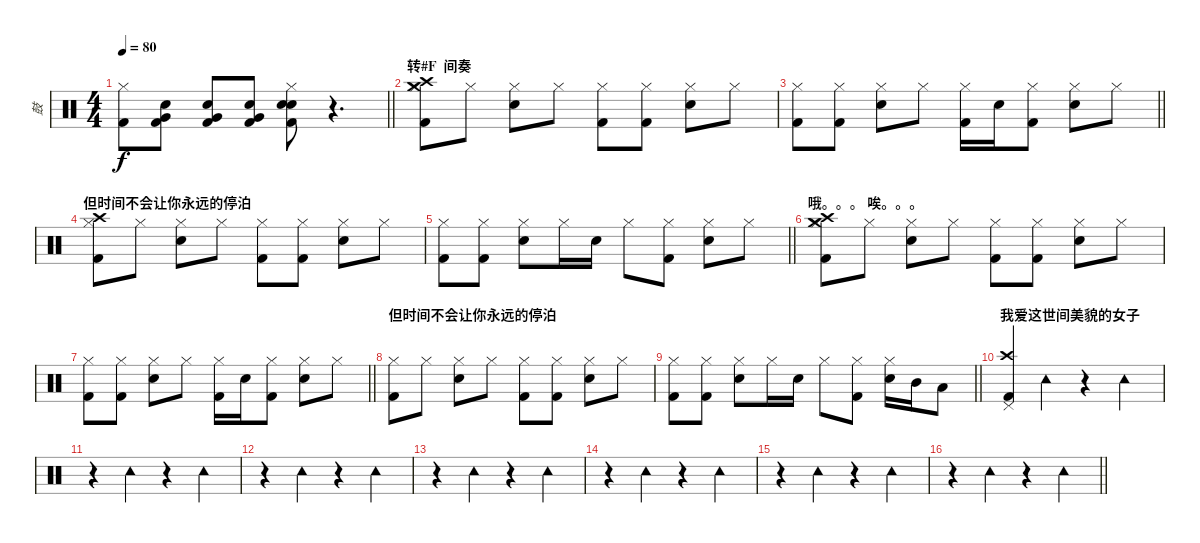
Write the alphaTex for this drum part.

\track ("鼓" "鼓") {instrument percussion}
\staff {score}
\articulation defaults
\ts (4 4)
\tempo 80
\clef neutral
\barLineRight lightlight
\ks c
("Hi-Hat (closed)" "Kick (hit) 2").8{dy f} ("Very Low Tom (hit)" "Snare (hit) 2" "Kick (hit) 2").8 ("Very Low Tom (hit)" "Snare (hit) 2" "Kick (hit) 2").8 ("Very Low Tom (hit)" "Snare (hit) 2" "Kick (hit) 2").8 ("Hi-Hat (closed)" "Snare (hit) 2" "Electric Snare (hit)" "Kick (hit) 2").8 r.4{d} |
\section ("" "转#F  间奏")
("Hi-Hat (closed)" "Crash medium (hit)" "Crash high (hit)" "Kick (hit) 2").8 "Hi-Hat (closed)".8 ("Hi-Hat (closed)" "Electric Snare (hit)").8 "Hi-Hat (closed)".8 ("Hi-Hat (closed)" "Kick (hit) 2").8 ("Hi-Hat (closed)" "Kick (hit) 2").8 ("Hi-Hat (closed)" "Electric Snare (hit)").8 "Hi-Hat (closed)".8 |
\barLineRight lightlight
("Hi-Hat (closed)" "Kick (hit) 2").8 ("Hi-Hat (closed)" "Kick (hit) 2").8 ("Hi-Hat (closed)" "Electric Snare (hit)").8 "Hi-Hat (closed)".8 ("Hi-Hat (closed)" "Kick (hit) 2").16 "Electric Snare (hit)".16 ("Hi-Hat (closed)" "Kick (hit) 2").8 ("Hi-Hat (closed)" "Electric Snare (hit)").8 "Hi-Hat (closed)".8 |
\section ("" "但时间不会让你永远的停泊")
("Hi-Hat (closed)" "Crash high (hit)" "Kick (hit) 2").8 "Hi-Hat (closed)".8 ("Hi-Hat (closed)" "Electric Snare (hit)").8 "Hi-Hat (closed)".8 ("Hi-Hat (closed)" "Kick (hit) 2").8 ("Hi-Hat (closed)" "Kick (hit) 2").8 ("Hi-Hat (closed)" "Electric Snare (hit)").8 "Hi-Hat (closed)".8 |
\barLineRight lightlight
("Hi-Hat (closed)" "Kick (hit) 2").8 ("Hi-Hat (closed)" "Kick (hit) 2").8 ("Hi-Hat (closed)" "Electric Snare (hit)").8 "Hi-Hat (closed)".16 "Electric Snare (hit)".16 "Hi-Hat (closed)".8 ("Hi-Hat (closed)" "Kick (hit) 2").8 ("Hi-Hat (closed)" "Electric Snare (hit)").8 "Hi-Hat (closed)".8 |
\section ("" "哦。。。 唉。。。")
("Hi-Hat (closed)" "Crash medium (hit)" "Crash high (hit)" "Kick (hit) 2").8 "Hi-Hat (closed)".8 ("Hi-Hat (closed)" "Electric Snare (hit)").8 "Hi-Hat (closed)".8 ("Hi-Hat (closed)" "Kick (hit) 2").8 ("Hi-Hat (closed)" "Kick (hit) 2").8 ("Hi-Hat (closed)" "Electric Snare (hit)").8 "Hi-Hat (closed)".8 |
\barLineRight lightlight
("Hi-Hat (closed)" "Kick (hit) 2").8 ("Hi-Hat (closed)" "Kick (hit) 2").8 ("Hi-Hat (closed)" "Electric Snare (hit)").8 "Hi-Hat (closed)".8 ("Hi-Hat (closed)" "Kick (hit) 2").16 "Electric Snare (hit)".16 ("Hi-Hat (closed)" "Kick (hit) 2").8 ("Hi-Hat (closed)" "Electric Snare (hit)").8 "Hi-Hat (closed)".8 |
\section ("" "但时间不会让你永远的停泊")
("Hi-Hat (closed)" "Kick (hit) 2").8 "Hi-Hat (closed)".8 ("Hi-Hat (closed)" "Electric Snare (hit)").8 "Hi-Hat (closed)".8 ("Hi-Hat (closed)" "Kick (hit) 2").8 ("Hi-Hat (closed)" "Kick (hit) 2").8 ("Hi-Hat (closed)" "Electric Snare (hit)").8 "Hi-Hat (closed)".8 |
\barLineRight lightlight
("Hi-Hat (closed)" "Kick (hit) 2").8 ("Hi-Hat (closed)" "Kick (hit) 2").8 ("Hi-Hat (closed)" "Electric Snare (hit)").8 "Hi-Hat (closed)".16 "Electric Snare (hit)".16 "Hi-Hat (closed)".8 ("Hi-Hat (closed)" "Kick (hit) 2").8 ("Hi-Hat (closed)" "Electric Snare (hit)").16 "Mid Tom (hit)".16 "Low Tom (hit)".8 |
\section ("" "我爱这世间美貌的女子")
("Pedal Hi-Hat (hit)" "Crash high (hit)" "Kick (hit) 2").4 "Tambourine (hit)".4 r.4 "Tambourine (hit)".4 |
r.4 "Tambourine (hit)".4 r.4 "Tambourine (hit)".4 |
r.4 "Tambourine (hit)".4 r.4 "Tambourine (hit)".4 |
r.4 "Tambourine (hit)".4 r.4 "Tambourine (hit)".4 |
r.4 "Tambourine (hit)".4 r.4 "Tambourine (hit)".4 |
r.4 "Tambourine (hit)".4 r.4 "Tambourine (hit)".4 |
\barLineRight lightlight
r.4 "Tambourine (hit)".4 r.4 "Tambourine (hit)".4
